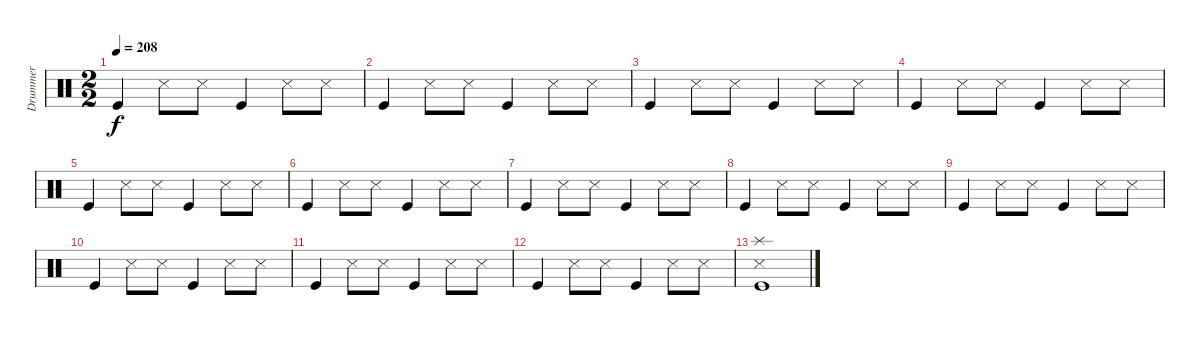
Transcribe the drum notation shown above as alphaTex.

\track ("Drummer" "Drummer") {instrument percussion}
\staff {score}
\articulation defaults
\ts (2 2)
\tempo 208
\clef neutral
\ks c "Kick (hit)".4{dy f} "Snare (side stick) 3".8 "Snare (side stick) 3".8 "Kick (hit)".4 "Snare (side stick) 3".8 "Snare (side stick) 3".8
|
"Kick (hit)".4 "Snare (side stick) 3".8 "Snare (side stick) 3".8 "Kick (hit)".4 "Snare (side stick) 3".8 "Snare (side stick) 3".8 |
"Kick (hit)".4 "Snare (side stick) 3".8 "Snare (side stick) 3".8 "Kick (hit)".4 "Snare (side stick) 3".8 "Snare (side stick) 3".8 |
"Kick (hit)".4 "Snare (side stick) 3".8 "Snare (side stick) 3".8 "Kick (hit)".4 "Snare (side stick) 3".8 "Snare (side stick) 3".8 |
"Kick (hit)".4 "Snare (side stick) 3".8 "Snare (side stick) 3".8 "Kick (hit)".4 "Snare (side stick) 3".8 "Snare (side stick) 3".8 |
"Kick (hit)".4 "Snare (side stick) 3".8 "Snare (side stick) 3".8 "Kick (hit)".4 "Snare (side stick) 3".8 "Snare (side stick) 3".8 |
"Kick (hit)".4 "Snare (side stick) 3".8 "Snare (side stick) 3".8 "Kick (hit)".4 "Snare (side stick) 3".8 "Snare (side stick) 3".8 |
"Kick (hit)".4 "Snare (side stick) 3".8 "Snare (side stick) 3".8 "Kick (hit)".4 "Snare (side stick) 3".8 "Snare (side stick) 3".8 |
"Kick (hit)".4 "Snare (side stick) 3".8 "Snare (side stick) 3".8 "Kick (hit)".4 "Snare (side stick) 3".8 "Snare (side stick) 3".8 |
"Kick (hit)".4 "Snare (side stick) 3".8 "Snare (side stick) 3".8 "Kick (hit)".4 "Snare (side stick) 3".8 "Snare (side stick) 3".8 |
"Kick (hit)".4 "Snare (side stick) 3".8 "Snare (side stick) 3".8 "Kick (hit)".4 "Snare (side stick) 3".8 "Snare (side stick) 3".8 |
"Kick (hit)".4 "Snare (side stick) 3".8 "Snare (side stick) 3".8 "Kick (hit)".4 "Snare (side stick) 3".8 "Snare (side stick) 3".8 |
("Splash (hit)" "Snare (side stick) 3" "Kick (hit)").1
